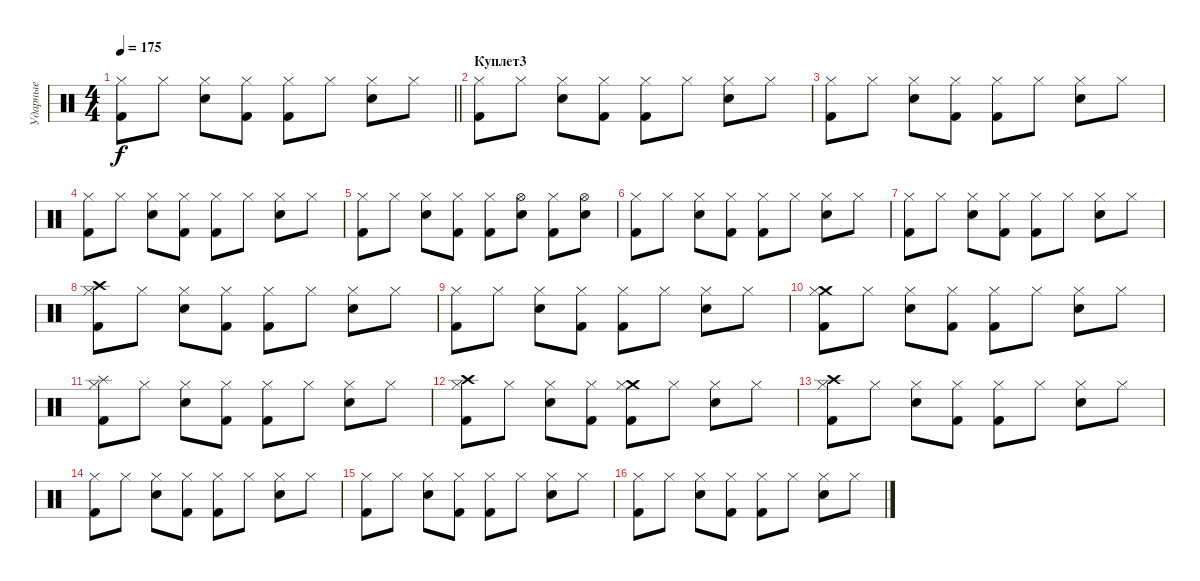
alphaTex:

\track ("Ударные" "Ударные") {instrument percussion}
\staff {score}
\articulation defaults
\ts (4 4)
\tempo 175
\clef neutral
\barLineRight lightlight
\ks c
("Hi-Hat (closed)" "Kick (hit) 2").8{dy f} "Hi-Hat (closed)".8 ("Hi-Hat (closed)" "Snare (hit) 2").8 ("Hi-Hat (closed)" "Kick (hit) 2").8 ("Hi-Hat (closed)" "Kick (hit) 2").8 "Hi-Hat (closed)".8 ("Hi-Hat (closed)" "Snare (hit) 2").8 "Hi-Hat (closed)".8 |
\section ("" "Куплет3")
("Hi-Hat (closed)" "Kick (hit) 2").8 "Hi-Hat (closed)".8 ("Hi-Hat (closed)" "Snare (hit) 2").8 ("Hi-Hat (closed)" "Kick (hit) 2").8 ("Hi-Hat (closed)" "Kick (hit) 2").8 "Hi-Hat (closed)".8 ("Hi-Hat (closed)" "Snare (hit) 2").8 "Hi-Hat (closed)".8 |
("Hi-Hat (closed)" "Kick (hit) 2").8 "Hi-Hat (closed)".8 ("Hi-Hat (closed)" "Snare (hit) 2").8 ("Hi-Hat (closed)" "Kick (hit) 2").8 ("Hi-Hat (closed)" "Kick (hit) 2").8 "Hi-Hat (closed)".8 ("Hi-Hat (closed)" "Snare (hit) 2").8 "Hi-Hat (closed)".8 |
("Hi-Hat (closed)" "Kick (hit) 2").8 "Hi-Hat (closed)".8 ("Hi-Hat (closed)" "Snare (hit) 2").8 ("Hi-Hat (closed)" "Kick (hit) 2").8 ("Hi-Hat (closed)" "Kick (hit) 2").8 "Hi-Hat (closed)".8 ("Hi-Hat (closed)" "Snare (hit) 2").8 "Hi-Hat (closed)".8 |
("Hi-Hat (closed)" "Kick (hit) 2").8 "Hi-Hat (closed)".8 ("Hi-Hat (closed)" "Snare (hit) 2").8 ("Hi-Hat (closed)" "Kick (hit) 2").8 ("Hi-Hat (closed)" "Kick (hit) 2").8 ("Hi-Hat (open)" "Snare (hit) 2").8 ("Hi-Hat (closed)" "Kick (hit) 2").8 ("Hi-Hat (open)" "Snare (hit) 2").8 |
("Hi-Hat (closed)" "Kick (hit) 2").8 "Hi-Hat (closed)".8 ("Hi-Hat (closed)" "Snare (hit) 2").8 ("Hi-Hat (closed)" "Kick (hit) 2").8 ("Hi-Hat (closed)" "Kick (hit) 2").8 "Hi-Hat (closed)".8 ("Hi-Hat (closed)" "Snare (hit) 2").8 "Hi-Hat (closed)".8 |
("Hi-Hat (closed)" "Kick (hit) 2").8 "Hi-Hat (closed)".8 ("Hi-Hat (closed)" "Snare (hit) 2").8 ("Hi-Hat (closed)" "Kick (hit) 2").8 ("Hi-Hat (closed)" "Kick (hit) 2").8 "Hi-Hat (closed)".8 ("Hi-Hat (closed)" "Snare (hit) 2").8 "Hi-Hat (closed)".8 |
("Crash high (hit)" "Hi-Hat (closed)" "Kick (hit) 2").8 "Hi-Hat (closed)".8 ("Hi-Hat (closed)" "Snare (hit) 2").8 ("Hi-Hat (closed)" "Kick (hit) 2").8 ("Hi-Hat (closed)" "Kick (hit) 2").8 "Hi-Hat (closed)".8 ("Hi-Hat (closed)" "Snare (hit) 2").8 "Hi-Hat (closed)".8 |
("Hi-Hat (closed)" "Kick (hit) 2").8 "Hi-Hat (closed)".8 ("Hi-Hat (closed)" "Snare (hit) 2").8 ("Hi-Hat (closed)" "Kick (hit) 2").8 ("Hi-Hat (closed)" "Kick (hit) 2").8 "Hi-Hat (closed)".8 ("Hi-Hat (closed)" "Snare (hit) 2").8 "Hi-Hat (closed)".8 |
("Crash medium (hit)" "Hi-Hat (closed)" "Kick (hit) 2").8 "Hi-Hat (closed)".8 ("Hi-Hat (closed)" "Snare (hit) 2").8 ("Hi-Hat (closed)" "Kick (hit) 2").8 ("Hi-Hat (closed)" "Kick (hit) 2").8 "Hi-Hat (closed)".8 ("Hi-Hat (closed)" "Snare (hit) 2").8 "Hi-Hat (closed)".8 |
("Splash (hit)" "Hi-Hat (closed)" "Kick (hit) 2").8 "Hi-Hat (closed)".8 ("Hi-Hat (closed)" "Snare (hit) 2").8 ("Hi-Hat (closed)" "Kick (hit) 2").8 ("Hi-Hat (closed)" "Kick (hit) 2").8 "Hi-Hat (closed)".8 ("Hi-Hat (closed)" "Snare (hit) 2").8 "Hi-Hat (closed)".8 |
("Crash high (hit)" "Hi-Hat (closed)" "Kick (hit) 2").8 "Hi-Hat (closed)".8 ("Hi-Hat (closed)" "Snare (hit) 2").8 ("Hi-Hat (closed)" "Kick (hit) 2").8 ("Crash medium (hit)" "Hi-Hat (closed)" "Kick (hit) 2").8 "Hi-Hat (closed)".8 ("Hi-Hat (closed)" "Snare (hit) 2").8 "Hi-Hat (closed)".8 |
("Crash high (hit)" "Hi-Hat (closed)" "Kick (hit) 2").8 "Hi-Hat (closed)".8 ("Hi-Hat (closed)" "Snare (hit) 2").8 ("Hi-Hat (closed)" "Kick (hit) 2").8 ("Hi-Hat (closed)" "Kick (hit) 2").8 "Hi-Hat (closed)".8 ("Hi-Hat (closed)" "Snare (hit) 2").8 "Hi-Hat (closed)".8 |
("Hi-Hat (closed)" "Kick (hit) 2").8 "Hi-Hat (closed)".8 ("Hi-Hat (closed)" "Snare (hit) 2").8 ("Hi-Hat (closed)" "Kick (hit) 2").8 ("Hi-Hat (closed)" "Kick (hit) 2").8 "Hi-Hat (closed)".8 ("Hi-Hat (closed)" "Snare (hit) 2").8 "Hi-Hat (closed)".8 |
("Hi-Hat (closed)" "Kick (hit) 2").8 "Hi-Hat (closed)".8 ("Hi-Hat (closed)" "Snare (hit) 2").8 ("Hi-Hat (closed)" "Kick (hit) 2").8 ("Hi-Hat (closed)" "Kick (hit) 2").8 "Hi-Hat (closed)".8 ("Hi-Hat (closed)" "Snare (hit) 2").8 "Hi-Hat (closed)".8 |
("Hi-Hat (closed)" "Kick (hit) 2").8 "Hi-Hat (closed)".8 ("Hi-Hat (closed)" "Snare (hit) 2").8 ("Hi-Hat (closed)" "Kick (hit) 2").8 ("Hi-Hat (closed)" "Kick (hit) 2").8 "Hi-Hat (closed)".8 ("Hi-Hat (closed)" "Snare (hit) 2").8 "Hi-Hat (closed)".8
